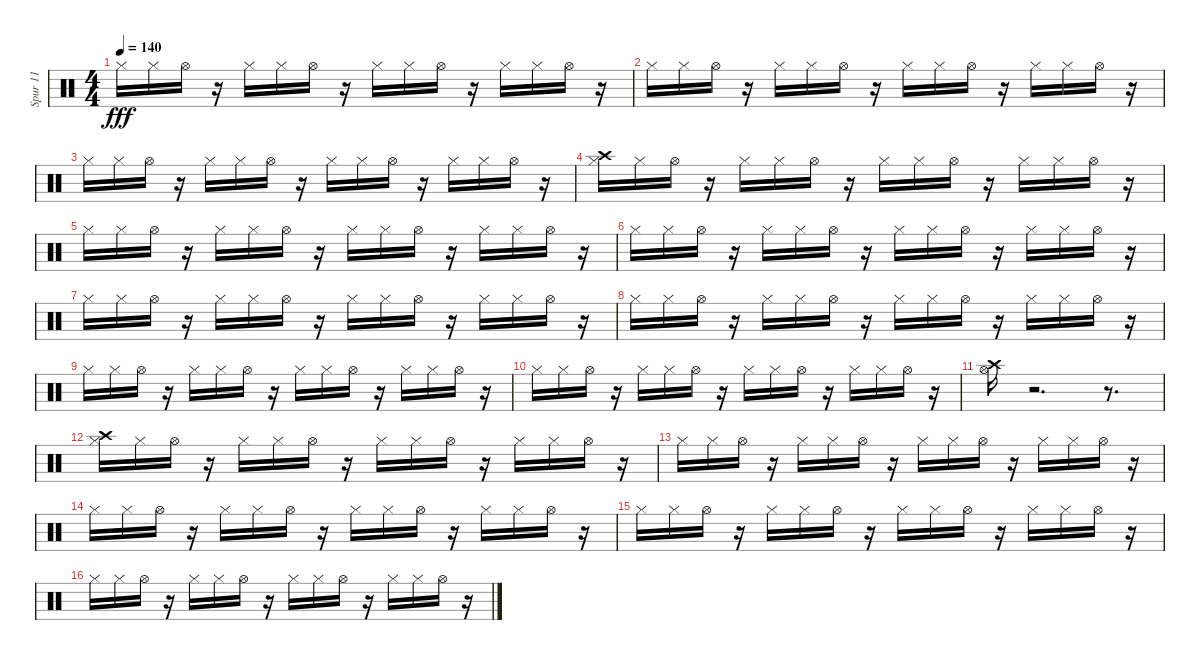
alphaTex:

\track ("Spur 11" "Spur 11") {instrument percussion}
\staff {score}
\articulation defaults
\ts (4 4)
\tempo 140
\clef neutral
\ks c "Hi-Hat (closed)".16{dy fff} "Hi-Hat (closed)".16 "Hi-Hat (open)".16
r.16 "Hi-Hat (closed)".16 "Hi-Hat (closed)".16 "Hi-Hat (open)".16 r.16 "Hi-Hat (closed)".16 "Hi-Hat (closed)".16 "Hi-Hat (open)".16 r.16 "Hi-Hat (closed)".16 "Hi-Hat (closed)".16 "Hi-Hat (open)".16 r.16 |
"Hi-Hat (closed)".16 "Hi-Hat (closed)".16 "Hi-Hat (open)".16 r.16 "Hi-Hat (closed)".16 "Hi-Hat (closed)".16 "Hi-Hat (open)".16 r.16 "Hi-Hat (closed)".16 "Hi-Hat (closed)".16 "Hi-Hat (open)".16 r.16 "Hi-Hat (closed)".16 "Hi-Hat (closed)".16 "Hi-Hat (open)".16 r.16 |
"Hi-Hat (closed)".16 "Hi-Hat (closed)".16 "Hi-Hat (open)".16 r.16 "Hi-Hat (closed)".16 "Hi-Hat (closed)".16 "Hi-Hat (open)".16 r.16 "Hi-Hat (closed)".16 "Hi-Hat (closed)".16 "Hi-Hat (open)".16 r.16 "Hi-Hat (closed)".16 "Hi-Hat (closed)".16 "Hi-Hat (open)".16 r.16 |
("Crash high (hit)" "Hi-Hat (closed)").16 "Hi-Hat (closed)".16 "Hi-Hat (open)".16 r.16 "Hi-Hat (closed)".16 "Hi-Hat (closed)".16 "Hi-Hat (open)".16 r.16 "Hi-Hat (closed)".16 "Hi-Hat (closed)".16 "Hi-Hat (open)".16 r.16 "Hi-Hat (closed)".16 "Hi-Hat (closed)".16 "Hi-Hat (open)".16 r.16 |
"Hi-Hat (closed)".16 "Hi-Hat (closed)".16 "Hi-Hat (open)".16 r.16 "Hi-Hat (closed)".16 "Hi-Hat (closed)".16 "Hi-Hat (open)".16 r.16 "Hi-Hat (closed)".16 "Hi-Hat (closed)".16 "Hi-Hat (open)".16 r.16 "Hi-Hat (closed)".16 "Hi-Hat (closed)".16 "Hi-Hat (open)".16 r.16 |
"Hi-Hat (closed)".16 "Hi-Hat (closed)".16 "Hi-Hat (open)".16 r.16 "Hi-Hat (closed)".16 "Hi-Hat (closed)".16 "Hi-Hat (open)".16 r.16 "Hi-Hat (closed)".16 "Hi-Hat (closed)".16 "Hi-Hat (open)".16 r.16 "Hi-Hat (closed)".16 "Hi-Hat (closed)".16 "Hi-Hat (open)".16 r.16 |
"Hi-Hat (closed)".16 "Hi-Hat (closed)".16 "Hi-Hat (open)".16 r.16 "Hi-Hat (closed)".16 "Hi-Hat (closed)".16 "Hi-Hat (open)".16 r.16 "Hi-Hat (closed)".16 "Hi-Hat (closed)".16 "Hi-Hat (open)".16 r.16 "Hi-Hat (closed)".16 "Hi-Hat (closed)".16 "Hi-Hat (open)".16 r.16 |
"Hi-Hat (closed)".16 "Hi-Hat (closed)".16 "Hi-Hat (open)".16 r.16 "Hi-Hat (closed)".16 "Hi-Hat (closed)".16 "Hi-Hat (open)".16 r.16 "Hi-Hat (closed)".16 "Hi-Hat (closed)".16 "Hi-Hat (open)".16 r.16 "Hi-Hat (closed)".16 "Hi-Hat (closed)".16 "Hi-Hat (open)".16 r.16 |
"Hi-Hat (closed)".16 "Hi-Hat (closed)".16 "Hi-Hat (open)".16 r.16 "Hi-Hat (closed)".16 "Hi-Hat (closed)".16 "Hi-Hat (open)".16 r.16 "Hi-Hat (closed)".16 "Hi-Hat (closed)".16 "Hi-Hat (open)".16 r.16 "Hi-Hat (closed)".16 "Hi-Hat (closed)".16 "Hi-Hat (open)".16 r.16 |
"Hi-Hat (closed)".16 "Hi-Hat (closed)".16 "Hi-Hat (open)".16 r.16 "Hi-Hat (closed)".16 "Hi-Hat (closed)".16 "Hi-Hat (open)".16 r.16 "Hi-Hat (closed)".16 "Hi-Hat (closed)".16 "Hi-Hat (open)".16 r.16 "Hi-Hat (closed)".16 "Hi-Hat (closed)".16 "Hi-Hat (open)".16 r.16 |
("Hi-Hat (open)" "Crash high (hit)").16 r.2{d} r.8{d} |
("Crash high (hit)" "Hi-Hat (closed)").16 "Hi-Hat (closed)".16 "Hi-Hat (open)".16 r.16 "Hi-Hat (closed)".16 "Hi-Hat (closed)".16 "Hi-Hat (open)".16 r.16 "Hi-Hat (closed)".16 "Hi-Hat (closed)".16 "Hi-Hat (open)".16 r.16 "Hi-Hat (closed)".16 "Hi-Hat (closed)".16 "Hi-Hat (open)".16 r.16 |
"Hi-Hat (closed)".16 "Hi-Hat (closed)".16 "Hi-Hat (open)".16 r.16 "Hi-Hat (closed)".16 "Hi-Hat (closed)".16 "Hi-Hat (open)".16 r.16 "Hi-Hat (closed)".16 "Hi-Hat (closed)".16 "Hi-Hat (open)".16 r.16 "Hi-Hat (closed)".16 "Hi-Hat (closed)".16 "Hi-Hat (open)".16 r.16 |
"Hi-Hat (closed)".16 "Hi-Hat (closed)".16 "Hi-Hat (open)".16 r.16 "Hi-Hat (closed)".16 "Hi-Hat (closed)".16 "Hi-Hat (open)".16 r.16 "Hi-Hat (closed)".16 "Hi-Hat (closed)".16 "Hi-Hat (open)".16 r.16 "Hi-Hat (closed)".16 "Hi-Hat (closed)".16 "Hi-Hat (open)".16 r.16 |
"Hi-Hat (closed)".16 "Hi-Hat (closed)".16 "Hi-Hat (open)".16 r.16 "Hi-Hat (closed)".16 "Hi-Hat (closed)".16 "Hi-Hat (open)".16 r.16 "Hi-Hat (closed)".16 "Hi-Hat (closed)".16 "Hi-Hat (open)".16 r.16 "Hi-Hat (closed)".16 "Hi-Hat (closed)".16 "Hi-Hat (open)".16 r.16 |
"Hi-Hat (closed)".16 "Hi-Hat (closed)".16 "Hi-Hat (open)".16 r.16 "Hi-Hat (closed)".16 "Hi-Hat (closed)".16 "Hi-Hat (open)".16 r.16 "Hi-Hat (closed)".16 "Hi-Hat (closed)".16 "Hi-Hat (open)".16 r.16 "Hi-Hat (closed)".16 "Hi-Hat (closed)".16 "Hi-Hat (open)".16 r.16
